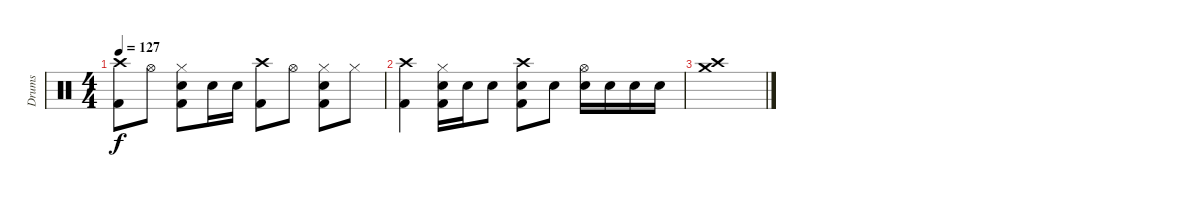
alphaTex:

\track ("Drums" "Drums") {instrument percussion}
\staff {score}
\articulation defaults
\ts (4 4)
\tempo 127
\clef neutral
\ks c
("Crash high (hit)" "Kick (hit) 2").8{dy f} "Hi-Hat (open)".8 ("Snare (hit) 2" "Hi-Hat (closed)" "Kick (hit) 2").8 "Snare (hit) 2".16 "Snare (hit) 2".16 ("Crash high (hit)" "Kick (hit) 2").8 "Hi-Hat (open)".8 ("Snare (hit) 2" "Hi-Hat (closed)" "Kick (hit) 2").8 "Hi-Hat (closed)".8 |
("Crash high (hit)" "Kick (hit) 2").4 ("Hi-Hat (closed)" "Snare (hit) 2" "Kick (hit) 2").16 "Snare (hit) 2".16 "Electric Snare (hit)".8 ("Crash high (hit)" "Snare (hit) 2" "Kick (hit) 2").8 "Snare (hit) 2".8 ("Hi-Hat (open)" "Snare (hit) 2").16 "Snare (hit) 2".16 "Snare (hit) 2".16 "Snare (hit) 2".16 |
("Crash high (hit)" "Crash medium (hit)").1
